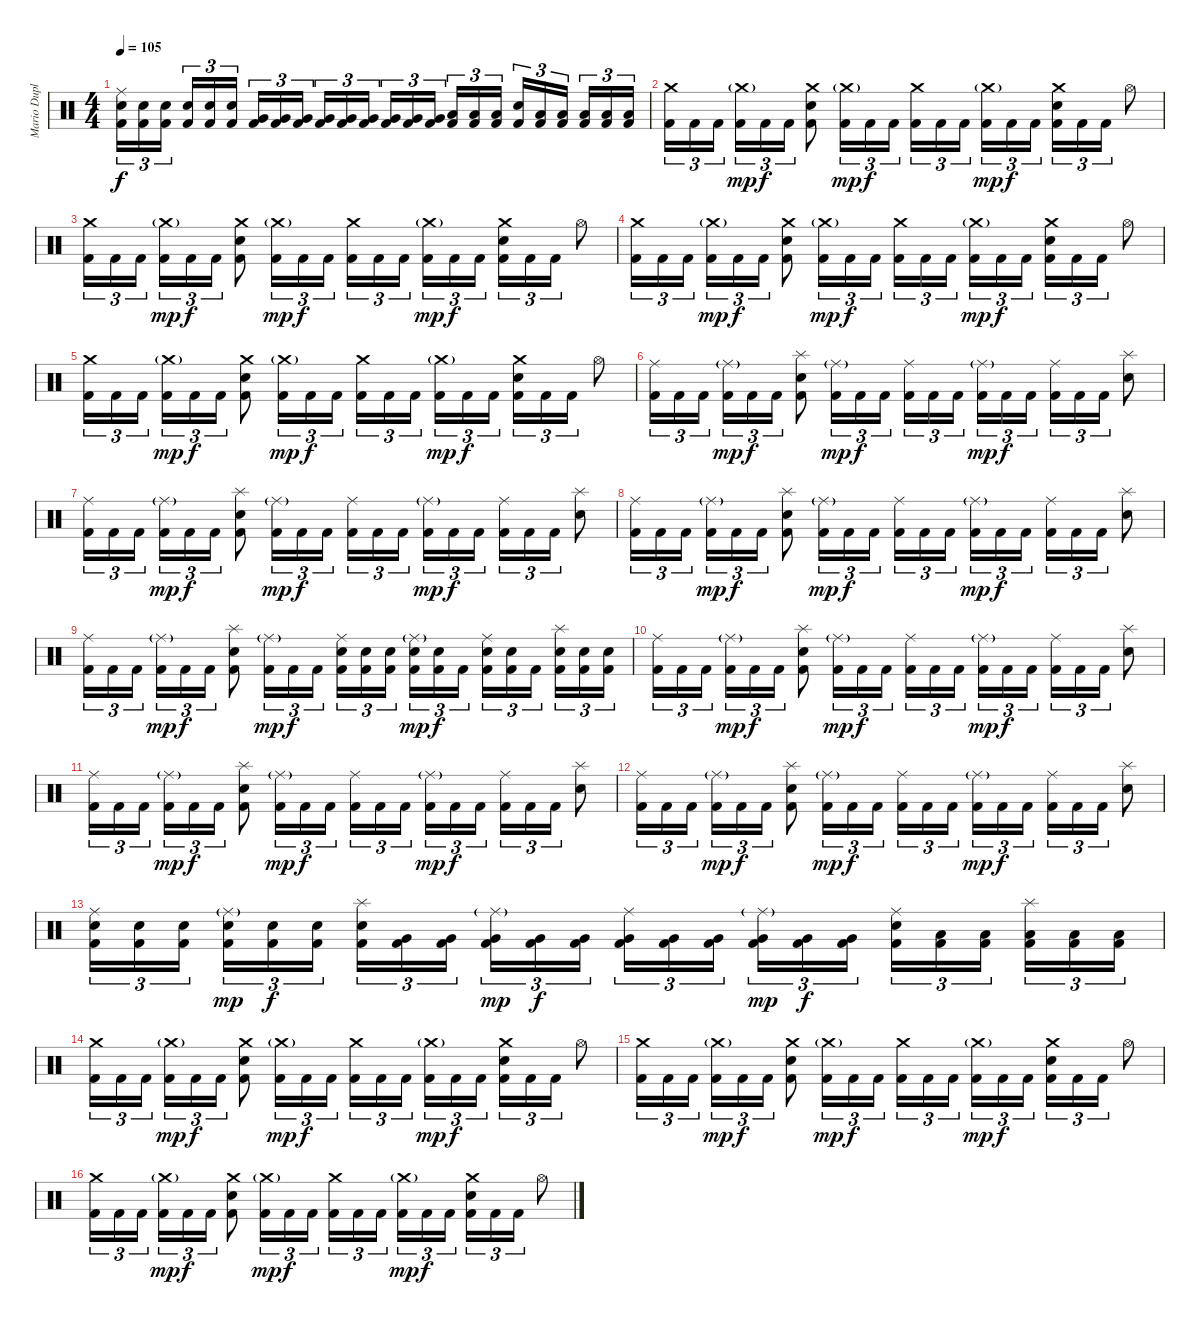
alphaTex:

\track ("Mario Duplantier" "Mario Dupl") {instrument percussion}
\staff {score}
\articulation defaults
\ts (4 4)
\tempo 105
\clef neutral
\ks c
("Ride (middle)" "Electric Snare (hit)" "Kick (hit) 2").16{tu (3 2) dy f} ("Electric Snare (hit)" "Kick (hit) 2").16{tu (3 2)} ("Electric Snare (hit)" "Kick (hit) 2").16{tu (3 2)} ("Electric Snare (hit)" "Kick (hit) 2").16{tu (3 2)} ("Electric Snare (hit)" "Kick (hit) 2").16{tu (3 2)} ("Electric Snare (hit)" "Kick (hit) 2").16{tu (3 2)} ("Very Low Tom (hit)" "Kick (hit) 2").16{tu (3 2)} ("Very Low Tom (hit)" "Kick (hit) 2").16{tu (3 2)} ("Very Low Tom (hit)" "Kick (hit) 2").16{tu (3 2)} ("Very Low Tom (hit)" "Kick (hit) 2").16{tu (3 2)} ("Very Low Tom (hit)" "Kick (hit) 2").16{tu (3 2)} ("Very Low Tom (hit)" "Kick (hit) 2").16{tu (3 2)} ("Very Low Tom (hit)" "Kick (hit) 2").16{tu (3 2)} ("Very Low Tom (hit)" "Kick (hit) 2").16{tu (3 2)} ("Very Low Tom (hit)" "Kick (hit) 2").16{tu (3 2)} ("Low Floor Tom (hit)" "Kick (hit) 2").16{tu (3 2)} ("Low Floor Tom (hit)" "Kick (hit) 2").16{tu (3 2)} ("Low Floor Tom (hit)" "Kick (hit) 2").16{tu (3 2)} ("Electric Snare (hit)" "Kick (hit) 2").16{tu (3 2)} ("Low Floor Tom (hit)" "Kick (hit) 2").16{tu (3 2)} ("Low Floor Tom (hit)" "Kick (hit) 2").16{tu (3 2)} ("Low Floor Tom (hit)" "Kick (hit) 2").16{tu (3 2)} ("Low Floor Tom (hit)" "Kick (hit) 2").16{tu (3 2)} ("Low Floor Tom (hit)" "Kick (hit) 2").16{tu (3 2)} |
("Crash medium (hit)" "Kick (hit) 2").16{tu (3 2)} "Kick (hit) 2".16{tu (3 2)} "Kick (hit) 2".16{tu (3 2)} ("Crash medium (hit)"{g} "Kick (hit) 2").16{tu (3 2) dy mp} "Kick (hit) 2".16{tu (3 2) dy f} "Kick (hit) 2".16{tu (3 2)} ("Crash medium (hit)" "Electric Snare (hit)" "Kick (hit) 2").8 ("Crash medium (hit)"{g} "Kick (hit) 2").16{tu (3 2) dy mp} "Kick (hit) 2".16{tu (3 2) dy f} "Kick (hit) 2".16{tu (3 2)} ("Crash medium (hit)" "Kick (hit) 2").16{tu (3 2)} "Kick (hit) 2".16{tu (3 2)} "Kick (hit) 2".16{tu (3 2)} ("Crash medium (hit)"{g} "Kick (hit) 2").16{tu (3 2) dy mp} "Kick (hit) 2".16{tu (3 2) dy f} "Kick (hit) 2".16{tu (3 2)} ("Crash medium (hit)" "Electric Snare (hit)" "Kick (hit) 2").16{tu (3 2)} "Kick (hit) 2".16{tu (3 2)} "Kick (hit) 2".16{tu (3 2)} "Hi-Hat (open)".8 |
("Crash medium (hit)" "Kick (hit) 2").16{tu (3 2)} "Kick (hit) 2".16{tu (3 2)} "Kick (hit) 2".16{tu (3 2)} ("Crash medium (hit)"{g} "Kick (hit) 2").16{tu (3 2) dy mp} "Kick (hit) 2".16{tu (3 2) dy f} "Kick (hit) 2".16{tu (3 2)} ("Crash medium (hit)" "Electric Snare (hit)" "Kick (hit) 2").8 ("Crash medium (hit)"{g} "Kick (hit) 2").16{tu (3 2) dy mp} "Kick (hit) 2".16{tu (3 2) dy f} "Kick (hit) 2".16{tu (3 2)} ("Crash medium (hit)" "Kick (hit) 2").16{tu (3 2)} "Kick (hit) 2".16{tu (3 2)} "Kick (hit) 2".16{tu (3 2)} ("Crash medium (hit)"{g} "Kick (hit) 2").16{tu (3 2) dy mp} "Kick (hit) 2".16{tu (3 2) dy f} "Kick (hit) 2".16{tu (3 2)} ("Crash medium (hit)" "Electric Snare (hit)" "Kick (hit) 2").16{tu (3 2)} "Kick (hit) 2".16{tu (3 2)} "Kick (hit) 2".16{tu (3 2)} "Hi-Hat (open)".8 |
("Crash medium (hit)" "Kick (hit) 2").16{tu (3 2)} "Kick (hit) 2".16{tu (3 2)} "Kick (hit) 2".16{tu (3 2)} ("Crash medium (hit)"{g} "Kick (hit) 2").16{tu (3 2) dy mp} "Kick (hit) 2".16{tu (3 2) dy f} "Kick (hit) 2".16{tu (3 2)} ("Crash medium (hit)" "Electric Snare (hit)" "Kick (hit) 2").8 ("Crash medium (hit)"{g} "Kick (hit) 2").16{tu (3 2) dy mp} "Kick (hit) 2".16{tu (3 2) dy f} "Kick (hit) 2".16{tu (3 2)} ("Crash medium (hit)" "Kick (hit) 2").16{tu (3 2)} "Kick (hit) 2".16{tu (3 2)} "Kick (hit) 2".16{tu (3 2)} ("Crash medium (hit)"{g} "Kick (hit) 2").16{tu (3 2) dy mp} "Kick (hit) 2".16{tu (3 2) dy f} "Kick (hit) 2".16{tu (3 2)} ("Crash medium (hit)" "Electric Snare (hit)" "Kick (hit) 2").16{tu (3 2)} "Kick (hit) 2".16{tu (3 2)} "Kick (hit) 2".16{tu (3 2)} "Hi-Hat (open)".8 |
("Crash medium (hit)" "Kick (hit) 2").16{tu (3 2)} "Kick (hit) 2".16{tu (3 2)} "Kick (hit) 2".16{tu (3 2)} ("Crash medium (hit)"{g} "Kick (hit) 2").16{tu (3 2) dy mp} "Kick (hit) 2".16{tu (3 2) dy f} "Kick (hit) 2".16{tu (3 2)} ("Crash medium (hit)" "Electric Snare (hit)" "Kick (hit) 2").8 ("Crash medium (hit)"{g} "Kick (hit) 2").16{tu (3 2) dy mp} "Kick (hit) 2".16{tu (3 2) dy f} "Kick (hit) 2".16{tu (3 2)} ("Crash medium (hit)" "Kick (hit) 2").16{tu (3 2)} "Kick (hit) 2".16{tu (3 2)} "Kick (hit) 2".16{tu (3 2)} ("Crash medium (hit)"{g} "Kick (hit) 2").16{tu (3 2) dy mp} "Kick (hit) 2".16{tu (3 2) dy f} "Kick (hit) 2".16{tu (3 2)} ("Crash medium (hit)" "Electric Snare (hit)" "Kick (hit) 2").16{tu (3 2)} "Kick (hit) 2".16{tu (3 2)} "Kick (hit) 2".16{tu (3 2)} "Hi-Hat (open)".8 |
("Ride (middle)" "Kick (hit) 2").16{tu (3 2)} "Kick (hit) 2".16{tu (3 2)} "Kick (hit) 2".16{tu (3 2)} ("Ride (middle)"{g} "Kick (hit) 2").16{tu (3 2) dy mp} "Kick (hit) 2".16{tu (3 2) dy f} "Kick (hit) 2".16{tu (3 2)} ("Splash (hit)" "Electric Snare (hit)" "Kick (hit) 2").8 ("Ride (middle)"{g} "Kick (hit) 2").16{tu (3 2) dy mp} "Kick (hit) 2".16{tu (3 2) dy f} "Kick (hit) 2".16{tu (3 2)} ("Ride (middle)" "Kick (hit) 2").16{tu (3 2)} "Kick (hit) 2".16{tu (3 2)} "Kick (hit) 2".16{tu (3 2)} ("Ride (middle)"{g} "Kick (hit) 2").16{tu (3 2) dy mp} "Kick (hit) 2".16{tu (3 2) dy f} "Kick (hit) 2".16{tu (3 2)} ("Ride (middle)" "Kick (hit) 2").16{tu (3 2)} "Kick (hit) 2".16{tu (3 2)} "Kick (hit) 2".16{tu (3 2)} ("Splash (hit)" "Electric Snare (hit)").8 |
("Ride (middle)" "Kick (hit) 2").16{tu (3 2)} "Kick (hit) 2".16{tu (3 2)} "Kick (hit) 2".16{tu (3 2)} ("Ride (middle)"{g} "Kick (hit) 2").16{tu (3 2) dy mp} "Kick (hit) 2".16{tu (3 2) dy f} "Kick (hit) 2".16{tu (3 2)} ("Splash (hit)" "Electric Snare (hit)" "Kick (hit) 2").8 ("Ride (middle)"{g} "Kick (hit) 2").16{tu (3 2) dy mp} "Kick (hit) 2".16{tu (3 2) dy f} "Kick (hit) 2".16{tu (3 2)} ("Ride (middle)" "Kick (hit) 2").16{tu (3 2)} "Kick (hit) 2".16{tu (3 2)} "Kick (hit) 2".16{tu (3 2)} ("Ride (middle)"{g} "Kick (hit) 2").16{tu (3 2) dy mp} "Kick (hit) 2".16{tu (3 2) dy f} "Kick (hit) 2".16{tu (3 2)} ("Ride (middle)" "Kick (hit) 2").16{tu (3 2)} "Kick (hit) 2".16{tu (3 2)} "Kick (hit) 2".16{tu (3 2)} ("Splash (hit)" "Electric Snare (hit)").8 |
("Ride (middle)" "Kick (hit) 2").16{tu (3 2)} "Kick (hit) 2".16{tu (3 2)} "Kick (hit) 2".16{tu (3 2)} ("Ride (middle)"{g} "Kick (hit) 2").16{tu (3 2) dy mp} "Kick (hit) 2".16{tu (3 2) dy f} "Kick (hit) 2".16{tu (3 2)} ("Splash (hit)" "Electric Snare (hit)" "Kick (hit) 2").8 ("Ride (middle)"{g} "Kick (hit) 2").16{tu (3 2) dy mp} "Kick (hit) 2".16{tu (3 2) dy f} "Kick (hit) 2".16{tu (3 2)} ("Ride (middle)" "Kick (hit) 2").16{tu (3 2)} "Kick (hit) 2".16{tu (3 2)} "Kick (hit) 2".16{tu (3 2)} ("Ride (middle)"{g} "Kick (hit) 2").16{tu (3 2) dy mp} "Kick (hit) 2".16{tu (3 2) dy f} "Kick (hit) 2".16{tu (3 2)} ("Ride (middle)" "Kick (hit) 2").16{tu (3 2)} "Kick (hit) 2".16{tu (3 2)} "Kick (hit) 2".16{tu (3 2)} ("Splash (hit)" "Electric Snare (hit)").8 |
("Ride (middle)" "Kick (hit) 2").16{tu (3 2)} "Kick (hit) 2".16{tu (3 2)} "Kick (hit) 2".16{tu (3 2)} ("Ride (middle)"{g} "Kick (hit) 2").16{tu (3 2) dy mp} "Kick (hit) 2".16{tu (3 2) dy f} "Kick (hit) 2".16{tu (3 2)} ("Splash (hit)" "Electric Snare (hit)" "Kick (hit) 2").8 ("Ride (middle)"{g} "Kick (hit) 2").16{tu (3 2) dy mp} "Kick (hit) 2".16{tu (3 2) dy f} "Kick (hit) 2".16{tu (3 2)} ("Ride (middle)" "Electric Snare (hit)" "Kick (hit) 2").16{tu (3 2)} ("Electric Snare (hit)" "Kick (hit) 2").16{tu (3 2)} ("Electric Snare (hit)" "Kick (hit) 2").16{tu (3 2)} ("Ride (middle)"{g} "Electric Snare (hit)" "Kick (hit) 2").16{tu (3 2) dy mp} ("Electric Snare (hit)" "Kick (hit) 2").16{tu (3 2) dy f} "Kick (hit) 2".16{tu (3 2)} ("Ride (middle)" "Electric Snare (hit)" "Kick (hit) 2").16{tu (3 2)} ("Electric Snare (hit)" "Kick (hit) 2").16{tu (3 2)} "Kick (hit) 2".16{tu (3 2)} ("Splash (hit)" "Electric Snare (hit)" "Kick (hit) 2").16{tu (3 2)} ("Electric Snare (hit)" "Kick (hit) 2").16{tu (3 2)} ("Electric Snare (hit)" "Kick (hit) 2").16{tu (3 2)} |
("Ride (middle)" "Kick (hit) 2").16{tu (3 2)} "Kick (hit) 2".16{tu (3 2)} "Kick (hit) 2".16{tu (3 2)} ("Ride (middle)"{g} "Kick (hit) 2").16{tu (3 2) dy mp} "Kick (hit) 2".16{tu (3 2) dy f} "Kick (hit) 2".16{tu (3 2)} ("Splash (hit)" "Electric Snare (hit)" "Kick (hit) 2").8 ("Ride (middle)"{g} "Kick (hit) 2").16{tu (3 2) dy mp} "Kick (hit) 2".16{tu (3 2) dy f} "Kick (hit) 2".16{tu (3 2)} ("Ride (middle)" "Kick (hit) 2").16{tu (3 2)} "Kick (hit) 2".16{tu (3 2)} "Kick (hit) 2".16{tu (3 2)} ("Ride (middle)"{g} "Kick (hit) 2").16{tu (3 2) dy mp} "Kick (hit) 2".16{tu (3 2) dy f} "Kick (hit) 2".16{tu (3 2)} ("Ride (middle)" "Kick (hit) 2").16{tu (3 2)} "Kick (hit) 2".16{tu (3 2)} "Kick (hit) 2".16{tu (3 2)} ("Splash (hit)" "Electric Snare (hit)").8 |
("Ride (middle)" "Kick (hit) 2").16{tu (3 2)} "Kick (hit) 2".16{tu (3 2)} "Kick (hit) 2".16{tu (3 2)} ("Ride (middle)"{g} "Kick (hit) 2").16{tu (3 2) dy mp} "Kick (hit) 2".16{tu (3 2) dy f} "Kick (hit) 2".16{tu (3 2)} ("Splash (hit)" "Electric Snare (hit)" "Kick (hit) 2").8 ("Ride (middle)"{g} "Kick (hit) 2").16{tu (3 2) dy mp} "Kick (hit) 2".16{tu (3 2) dy f} "Kick (hit) 2".16{tu (3 2)} ("Ride (middle)" "Kick (hit) 2").16{tu (3 2)} "Kick (hit) 2".16{tu (3 2)} "Kick (hit) 2".16{tu (3 2)} ("Ride (middle)"{g} "Kick (hit) 2").16{tu (3 2) dy mp} "Kick (hit) 2".16{tu (3 2) dy f} "Kick (hit) 2".16{tu (3 2)} ("Ride (middle)" "Kick (hit) 2").16{tu (3 2)} "Kick (hit) 2".16{tu (3 2)} "Kick (hit) 2".16{tu (3 2)} ("Splash (hit)" "Electric Snare (hit)").8 |
("Ride (middle)" "Kick (hit) 2").16{tu (3 2)} "Kick (hit) 2".16{tu (3 2)} "Kick (hit) 2".16{tu (3 2)} ("Ride (middle)"{g} "Kick (hit) 2").16{tu (3 2) dy mp} "Kick (hit) 2".16{tu (3 2) dy f} "Kick (hit) 2".16{tu (3 2)} ("Splash (hit)" "Electric Snare (hit)" "Kick (hit) 2").8 ("Ride (middle)"{g} "Kick (hit) 2").16{tu (3 2) dy mp} "Kick (hit) 2".16{tu (3 2) dy f} "Kick (hit) 2".16{tu (3 2)} ("Ride (middle)" "Kick (hit) 2").16{tu (3 2)} "Kick (hit) 2".16{tu (3 2)} "Kick (hit) 2".16{tu (3 2)} ("Ride (middle)"{g} "Kick (hit) 2").16{tu (3 2) dy mp} "Kick (hit) 2".16{tu (3 2) dy f} "Kick (hit) 2".16{tu (3 2)} ("Ride (middle)" "Kick (hit) 2").16{tu (3 2)} "Kick (hit) 2".16{tu (3 2)} "Kick (hit) 2".16{tu (3 2)} ("Splash (hit)" "Electric Snare (hit)").8 |
("Ride (middle)" "Electric Snare (hit)" "Kick (hit) 2").16{tu (3 2)} ("Electric Snare (hit)" "Kick (hit) 2").16{tu (3 2)} ("Electric Snare (hit)" "Kick (hit) 2").16{tu (3 2)} ("Ride (middle)"{g} "Electric Snare (hit)" "Kick (hit) 2").16{tu (3 2) dy mp} ("Electric Snare (hit)" "Kick (hit) 2").16{tu (3 2) dy f} ("Electric Snare (hit)" "Kick (hit) 2").16{tu (3 2)} ("Splash (hit)" "Electric Snare (hit)" "Kick (hit) 2").16{tu (3 2)} ("Very Low Tom (hit)" "Kick (hit) 2").16{tu (3 2)} ("Very Low Tom (hit)" "Kick (hit) 2").16{tu (3 2)} ("Ride (middle)"{g} "Very Low Tom (hit)" "Kick (hit) 2").16{tu (3 2) dy mp} ("Very Low Tom (hit)" "Kick (hit) 2").16{tu (3 2) dy f} ("Very Low Tom (hit)" "Kick (hit) 2").16{tu (3 2)} ("Ride (middle)" "Very Low Tom (hit)" "Kick (hit) 2").16{tu (3 2)} ("Very Low Tom (hit)" "Kick (hit) 2").16{tu (3 2)} ("Very Low Tom (hit)" "Kick (hit) 2").16{tu (3 2)} ("Ride (middle)"{g} "Very Low Tom (hit)" "Kick (hit) 2").16{tu (3 2) dy mp} ("Very Low Tom (hit)" "Kick (hit) 2").16{tu (3 2) dy f} ("Very Low Tom (hit)" "Kick (hit) 2").16{tu (3 2)} ("Ride (middle)" "Electric Snare (hit)" "Kick (hit) 2").16{tu (3 2)} ("Low Floor Tom (hit)" "Kick (hit) 2").16{tu (3 2)} ("Low Floor Tom (hit)" "Kick (hit) 2").16{tu (3 2)} ("Splash (hit)" "Low Floor Tom (hit)" "Kick (hit) 2").16{tu (3 2)} ("Low Floor Tom (hit)" "Kick (hit) 2").16{tu (3 2)} ("Low Floor Tom (hit)" "Kick (hit) 2").16{tu (3 2)} |
("Crash medium (hit)" "Kick (hit) 2").16{tu (3 2)} "Kick (hit) 2".16{tu (3 2)} "Kick (hit) 2".16{tu (3 2)} ("Crash medium (hit)"{g} "Kick (hit) 2").16{tu (3 2) dy mp} "Kick (hit) 2".16{tu (3 2) dy f} "Kick (hit) 2".16{tu (3 2)} ("Crash medium (hit)" "Electric Snare (hit)" "Kick (hit) 2").8 ("Crash medium (hit)"{g} "Kick (hit) 2").16{tu (3 2) dy mp} "Kick (hit) 2".16{tu (3 2) dy f} "Kick (hit) 2".16{tu (3 2)} ("Crash medium (hit)" "Kick (hit) 2").16{tu (3 2)} "Kick (hit) 2".16{tu (3 2)} "Kick (hit) 2".16{tu (3 2)} ("Crash medium (hit)"{g} "Kick (hit) 2").16{tu (3 2) dy mp} "Kick (hit) 2".16{tu (3 2) dy f} "Kick (hit) 2".16{tu (3 2)} ("Crash medium (hit)" "Electric Snare (hit)" "Kick (hit) 2").16{tu (3 2)} "Kick (hit) 2".16{tu (3 2)} "Kick (hit) 2".16{tu (3 2)} "Hi-Hat (open)".8 |
("Crash medium (hit)" "Kick (hit) 2").16{tu (3 2)} "Kick (hit) 2".16{tu (3 2)} "Kick (hit) 2".16{tu (3 2)} ("Crash medium (hit)"{g} "Kick (hit) 2").16{tu (3 2) dy mp} "Kick (hit) 2".16{tu (3 2) dy f} "Kick (hit) 2".16{tu (3 2)} ("Crash medium (hit)" "Electric Snare (hit)" "Kick (hit) 2").8 ("Crash medium (hit)"{g} "Kick (hit) 2").16{tu (3 2) dy mp} "Kick (hit) 2".16{tu (3 2) dy f} "Kick (hit) 2".16{tu (3 2)} ("Crash medium (hit)" "Kick (hit) 2").16{tu (3 2)} "Kick (hit) 2".16{tu (3 2)} "Kick (hit) 2".16{tu (3 2)} ("Crash medium (hit)"{g} "Kick (hit) 2").16{tu (3 2) dy mp} "Kick (hit) 2".16{tu (3 2) dy f} "Kick (hit) 2".16{tu (3 2)} ("Crash medium (hit)" "Electric Snare (hit)" "Kick (hit) 2").16{tu (3 2)} "Kick (hit) 2".16{tu (3 2)} "Kick (hit) 2".16{tu (3 2)} "Hi-Hat (open)".8 |
("Crash medium (hit)" "Kick (hit) 2").16{tu (3 2)} "Kick (hit) 2".16{tu (3 2)} "Kick (hit) 2".16{tu (3 2)} ("Crash medium (hit)"{g} "Kick (hit) 2").16{tu (3 2) dy mp} "Kick (hit) 2".16{tu (3 2) dy f} "Kick (hit) 2".16{tu (3 2)} ("Crash medium (hit)" "Electric Snare (hit)" "Kick (hit) 2").8 ("Crash medium (hit)"{g} "Kick (hit) 2").16{tu (3 2) dy mp} "Kick (hit) 2".16{tu (3 2) dy f} "Kick (hit) 2".16{tu (3 2)} ("Crash medium (hit)" "Kick (hit) 2").16{tu (3 2)} "Kick (hit) 2".16{tu (3 2)} "Kick (hit) 2".16{tu (3 2)} ("Crash medium (hit)"{g} "Kick (hit) 2").16{tu (3 2) dy mp} "Kick (hit) 2".16{tu (3 2) dy f} "Kick (hit) 2".16{tu (3 2)} ("Crash medium (hit)" "Electric Snare (hit)" "Kick (hit) 2").16{tu (3 2)} "Kick (hit) 2".16{tu (3 2)} "Kick (hit) 2".16{tu (3 2)} "Hi-Hat (open)".8
